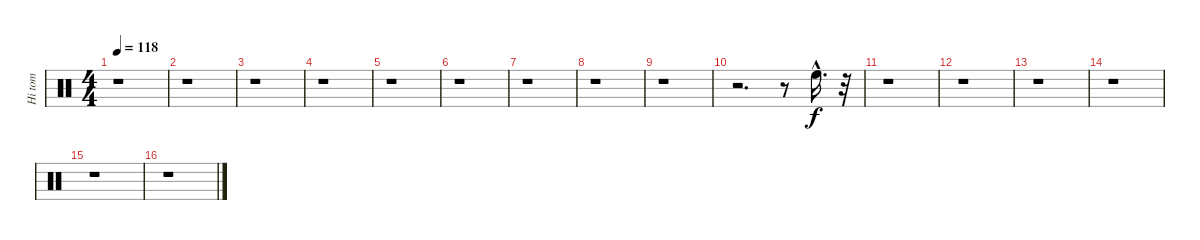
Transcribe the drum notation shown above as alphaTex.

\track ("Hi tom              " "Hi tom    ") {instrument percussion}
\staff {score}
\articulation defaults
\ts (4 4)
\tempo 118
\clef neutral
\ks c
r.1{dy f} |
r.1 |
r.1 |
r.1 |
r.1 |
r.1 |
r.1 |
r.1 |
r.1 |
r.2{d} r.8 "High Floor Tom (hit)"{hac}.16{d} r.32 |
r.1 |
r.1 |
r.1 |
r.1 |
r.1 |
r.1
